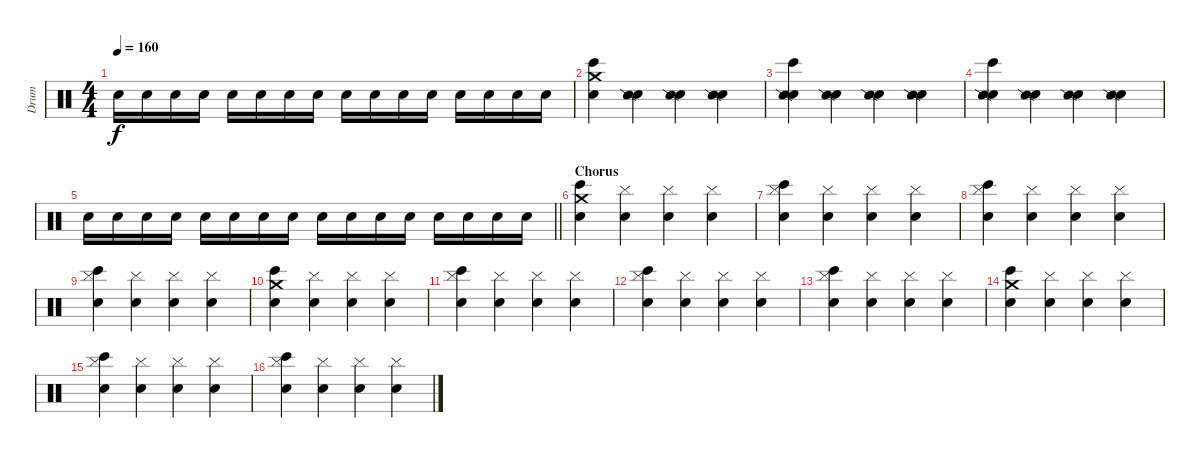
\track ("Drum" "Drum") {instrument percussion}
\staff {score}
\articulation defaults
\ts (4 4)
\tempo 160
\clef neutral
\ks c "Electric Snare (hit)".16{dy f} "Electric Snare (hit)".16 "Electric Snare (hit)".16 "Electric Snare (hit)".16 "Electric Snare (hit)".16 "Electric Snare (hit)".16 "Electric Snare (hit)".16 "Electric Snare (hit)".16 "Electric Snare (hit)".16 "Electric Snare (hit)".16 "Electric Snare (hit)".16 "Electric Snare (hit)".16 "Electric Snare (hit)".16 "Electric Snare (hit)".16 "Electric Snare (hit)".16 "Electric Snare (hit)".16
|
("Electric Snare (hit)" "Bongo High (hit)" "Crash medium (hit)").4 ("Electric Snare (hit)" "Snare (side stick) 2").4 ("Electric Snare (hit)" "Snare (side stick) 2").4 ("Electric Snare (hit)" "Snare (side stick) 2").4 |
("Electric Snare (hit)" "Bongo High (hit)" "Snare (side stick) 2").4 ("Electric Snare (hit)" "Snare (side stick) 2").4 ("Electric Snare (hit)" "Snare (side stick) 2").4 ("Electric Snare (hit)" "Snare (side stick) 2").4 |
("Electric Snare (hit)" "Bongo High (hit)" "Snare (side stick) 2").4 ("Electric Snare (hit)" "Snare (side stick) 2").4 ("Electric Snare (hit)" "Snare (side stick) 2").4 ("Electric Snare (hit)" "Snare (side stick) 2").4 |
\barLineRight lightlight "Electric Snare (hit)".16 "Electric Snare (hit)".16 "Electric Snare (hit)".16 "Electric Snare (hit)".16 "Electric Snare (hit)".16 "Electric Snare (hit)".16 "Electric Snare (hit)".16 "Electric Snare (hit)".16 "Electric Snare (hit)".16 "Electric Snare (hit)".16 "Electric Snare (hit)".16 "Electric Snare (hit)".16 "Electric Snare (hit)".16 "Electric Snare (hit)".16 "Electric Snare (hit)".16 "Electric Snare (hit)".16
|
\section ("" "Chorus")
("Electric Snare (hit)" "Bongo High (hit)" "Crash medium (hit)").4 ("Electric Snare (hit)" "Cymbal (hit)").4 ("Electric Snare (hit)" "Cymbal (hit)").4 ("Electric Snare (hit)" "Cymbal (hit)").4 |
("Electric Snare (hit)" "Bongo High (hit)" "Cymbal (hit)").4 ("Electric Snare (hit)" "Cymbal (hit)").4 ("Electric Snare (hit)" "Cymbal (hit)").4 ("Electric Snare (hit)" "Cymbal (hit)").4 |
("Electric Snare (hit)" "Bongo High (hit)" "Cymbal (hit)").4 ("Electric Snare (hit)" "Cymbal (hit)").4 ("Electric Snare (hit)" "Cymbal (hit)").4 ("Electric Snare (hit)" "Cymbal (hit)").4 |
("Electric Snare (hit)" "Bongo High (hit)" "Cymbal (hit)").4 ("Electric Snare (hit)" "Cymbal (hit)").4 ("Electric Snare (hit)" "Cymbal (hit)").4 ("Electric Snare (hit)" "Cymbal (hit)").4 |
("Electric Snare (hit)" "Bongo High (hit)" "Crash medium (hit)").4 ("Electric Snare (hit)" "Cymbal (hit)").4 ("Electric Snare (hit)" "Cymbal (hit)").4 ("Electric Snare (hit)" "Cymbal (hit)").4 |
("Electric Snare (hit)" "Bongo High (hit)" "Cymbal (hit)").4 ("Electric Snare (hit)" "Cymbal (hit)").4 ("Electric Snare (hit)" "Cymbal (hit)").4 ("Electric Snare (hit)" "Cymbal (hit)").4 |
("Electric Snare (hit)" "Bongo High (hit)" "Cymbal (hit)").4 ("Electric Snare (hit)" "Cymbal (hit)").4 ("Electric Snare (hit)" "Cymbal (hit)").4 ("Electric Snare (hit)" "Cymbal (hit)").4 |
("Electric Snare (hit)" "Bongo High (hit)" "Cymbal (hit)").4 ("Electric Snare (hit)" "Cymbal (hit)").4 ("Electric Snare (hit)" "Cymbal (hit)").4 ("Electric Snare (hit)" "Cymbal (hit)").4 |
("Electric Snare (hit)" "Bongo High (hit)" "Crash medium (hit)").4 ("Electric Snare (hit)" "Cymbal (hit)").4 ("Electric Snare (hit)" "Cymbal (hit)").4 ("Electric Snare (hit)" "Cymbal (hit)").4 |
("Electric Snare (hit)" "Bongo High (hit)" "Cymbal (hit)").4 ("Electric Snare (hit)" "Cymbal (hit)").4 ("Electric Snare (hit)" "Cymbal (hit)").4 ("Electric Snare (hit)" "Cymbal (hit)").4 |
("Electric Snare (hit)" "Bongo High (hit)" "Cymbal (hit)").4 ("Electric Snare (hit)" "Cymbal (hit)").4 ("Electric Snare (hit)" "Cymbal (hit)").4 ("Electric Snare (hit)" "Cymbal (hit)").4
